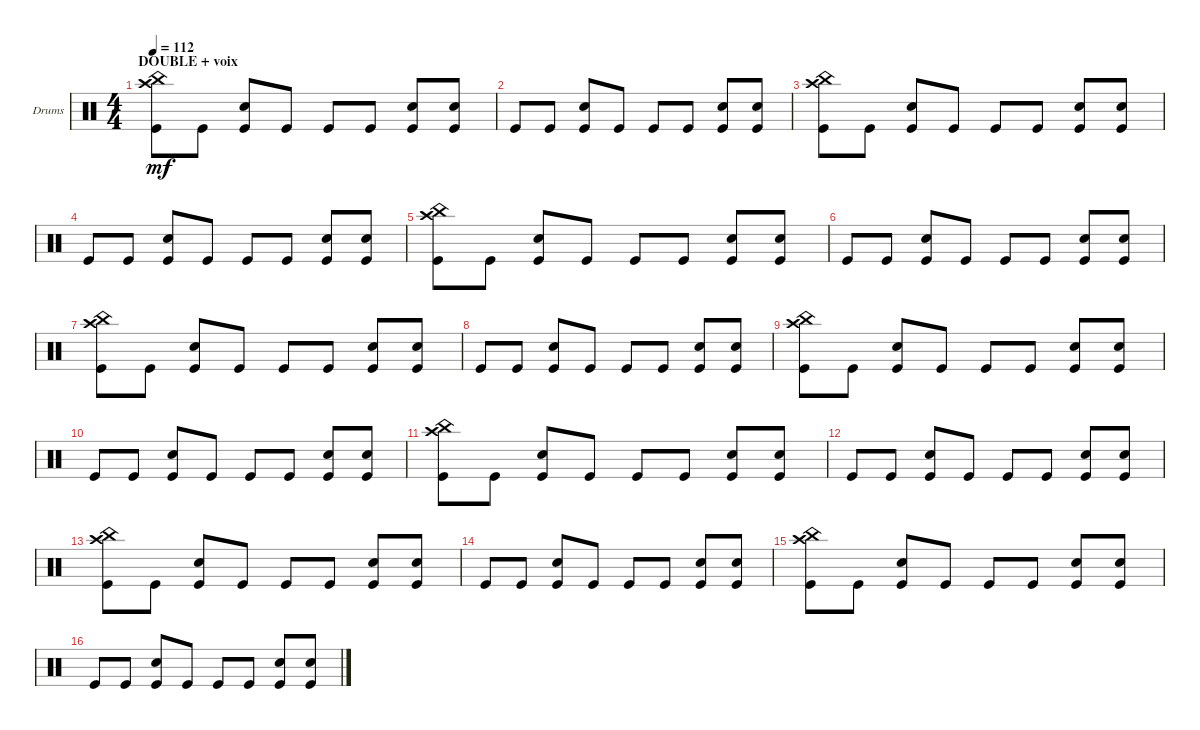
\defaultSystemsLayout 4
\bracketExtendMode groupsimilarinstruments
\firstSystemTrackNameOrientation horizontal
\otherSystemsTrackNameOrientation horizontal
\track ("Drumkit" "Drums") {instrument percussion}
\staff {score}
\articulation defaults
\ts (4 4)
\section ("" "DOUBLE + voix")
\tempo 112
\clef neutral
\scale
1.07945
\ks c
("Kick (hit)" "Crash high (hit)" "China (hit)").8{dy mf} "Kick (hit)".8 ("Kick (hit)" "Snare (hit) 2").8 "Kick (hit)".8 "Kick (hit)".8 "Kick (hit)".8 ("Kick (hit)" "Snare (hit) 2").8 ("Kick (hit)" "Snare (hit) 2").8 |
\scale
0.973518 "Kick (hit)".8 "Kick (hit)".8 ("Kick (hit)" "Snare (hit) 2").8 "Kick (hit)".8 "Kick (hit)".8 "Kick (hit)".8 ("Kick (hit)" "Snare (hit) 2").8 ("Kick (hit)" "Snare (hit) 2").8 |
\scale
0.973518 ("Kick (hit)" "Crash high (hit)" "China (hit)").8 "Kick (hit)".8 ("Kick (hit)" "Snare (hit) 2").8 "Kick (hit)".8 "Kick (hit)".8 "Kick (hit)".8 ("Kick (hit)" "Snare (hit) 2").8 ("Kick (hit)" "Snare (hit) 2").8 |
\scale
0.973518 "Kick (hit)".8 "Kick (hit)".8 ("Kick (hit)" "Snare (hit) 2").8 "Kick (hit)".8 "Kick (hit)".8 "Kick (hit)".8 ("Kick (hit)" "Snare (hit) 2").8 ("Kick (hit)" "Snare (hit) 2").8 |
\scale
1.07945 ("Kick (hit)" "Crash high (hit)" "China (hit)").8 "Kick (hit)".8 ("Kick (hit)" "Snare (hit) 2").8 "Kick (hit)".8 "Kick (hit)".8 "Kick (hit)".8 ("Kick (hit)" "Snare (hit) 2").8 ("Kick (hit)" "Snare (hit) 2").8 |
\scale
0.973518 "Kick (hit)".8 "Kick (hit)".8 ("Kick (hit)" "Snare (hit) 2").8 "Kick (hit)".8 "Kick (hit)".8 "Kick (hit)".8 ("Kick (hit)" "Snare (hit) 2").8 ("Kick (hit)" "Snare (hit) 2").8 |
\scale
0.973518 ("Kick (hit)" "Crash high (hit)" "China (hit)").8 "Kick (hit)".8 ("Kick (hit)" "Snare (hit) 2").8 "Kick (hit)".8 "Kick (hit)".8 "Kick (hit)".8 ("Kick (hit)" "Snare (hit) 2").8 ("Kick (hit)" "Snare (hit) 2").8 |
\scale
0.973518 "Kick (hit)".8 "Kick (hit)".8 ("Kick (hit)" "Snare (hit) 2").8 "Kick (hit)".8 "Kick (hit)".8 "Kick (hit)".8 ("Kick (hit)" "Snare (hit) 2").8 ("Kick (hit)" "Snare (hit) 2").8 |
\scale
1.07945 ("Kick (hit)" "Crash high (hit)" "China (hit)").8 "Kick (hit)".8 ("Kick (hit)" "Snare (hit) 2").8 "Kick (hit)".8 "Kick (hit)".8 "Kick (hit)".8 ("Kick (hit)" "Snare (hit) 2").8 ("Kick (hit)" "Snare (hit) 2").8 |
\scale
0.973518 "Kick (hit)".8 "Kick (hit)".8 ("Kick (hit)" "Snare (hit) 2").8 "Kick (hit)".8 "Kick (hit)".8 "Kick (hit)".8 ("Kick (hit)" "Snare (hit) 2").8 ("Kick (hit)" "Snare (hit) 2").8 |
\scale
0.973518 ("Kick (hit)" "Crash high (hit)" "China (hit)").8 "Kick (hit)".8 ("Kick (hit)" "Snare (hit) 2").8 "Kick (hit)".8 "Kick (hit)".8 "Kick (hit)".8 ("Kick (hit)" "Snare (hit) 2").8 ("Kick (hit)" "Snare (hit) 2").8 |
\scale
0.973518 "Kick (hit)".8 "Kick (hit)".8 ("Kick (hit)" "Snare (hit) 2").8 "Kick (hit)".8 "Kick (hit)".8 "Kick (hit)".8 ("Kick (hit)" "Snare (hit) 2").8 ("Kick (hit)" "Snare (hit) 2").8 |
\scale
1.07945 ("Kick (hit)" "Crash high (hit)" "China (hit)").8 "Kick (hit)".8 ("Kick (hit)" "Snare (hit) 2").8 "Kick (hit)".8 "Kick (hit)".8 "Kick (hit)".8 ("Kick (hit)" "Snare (hit) 2").8 ("Kick (hit)" "Snare (hit) 2").8 |
\scale
0.973518 "Kick (hit)".8 "Kick (hit)".8 ("Kick (hit)" "Snare (hit) 2").8 "Kick (hit)".8 "Kick (hit)".8 "Kick (hit)".8 ("Kick (hit)" "Snare (hit) 2").8 ("Kick (hit)" "Snare (hit) 2").8 |
\scale
0.973518 ("Kick (hit)" "Crash high (hit)" "China (hit)").8 "Kick (hit)".8 ("Kick (hit)" "Snare (hit) 2").8 "Kick (hit)".8 "Kick (hit)".8 "Kick (hit)".8 ("Kick (hit)" "Snare (hit) 2").8 ("Kick (hit)" "Snare (hit) 2").8 |
\scale
0.973518 "Kick (hit)".8 "Kick (hit)".8 ("Kick (hit)" "Snare (hit) 2").8 "Kick (hit)".8 "Kick (hit)".8 "Kick (hit)".8 ("Kick (hit)" "Snare (hit) 2").8 ("Kick (hit)" "Snare (hit) 2").8
